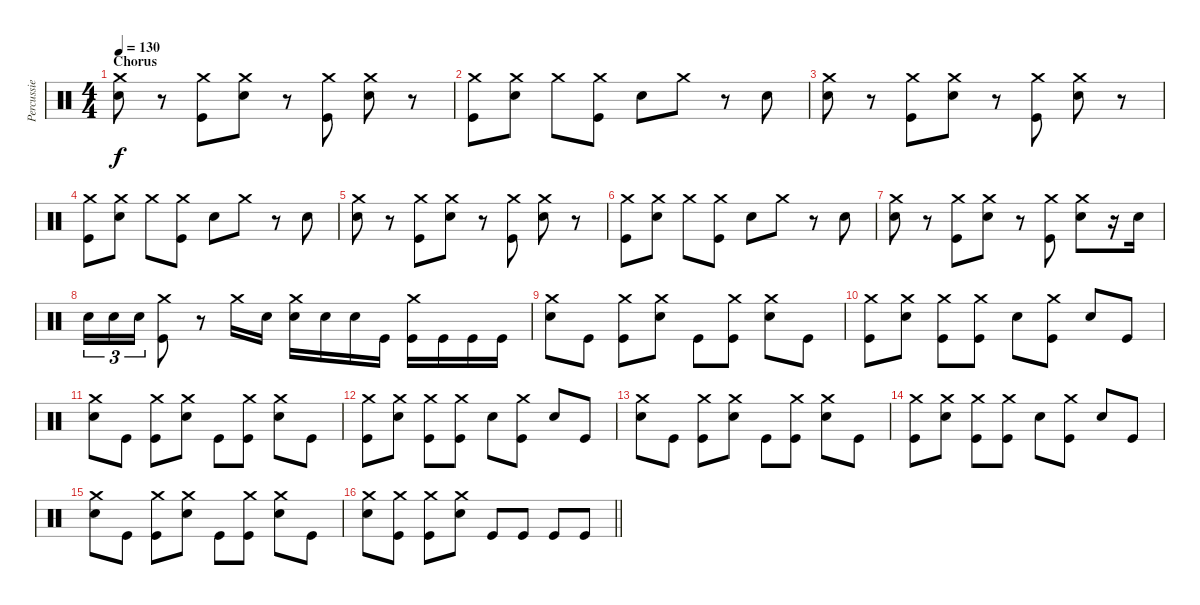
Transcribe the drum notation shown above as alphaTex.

\track ("Percussie" "Percussie") {instrument percussion}
\staff {score}
\articulation defaults
\ts (4 4)
\section ("" "Chorus")
\tempo 130
\clef neutral
\ks c
("Crash medium (hit)" "Snare (hit) 2").8{dy f} r.8 ("Crash medium (hit)" "Kick (hit)").8 ("Crash medium (hit)" "Snare (hit) 2").8 r.8 ("Crash medium (hit)" "Kick (hit)").8 ("Crash medium (hit)" "Snare (hit) 2").8 r.8 |
("Crash medium (hit)" "Kick (hit)").8 ("Crash medium (hit)" "Snare (hit) 2").8 "Crash medium (hit)".8 ("Crash medium (hit)" "Kick (hit)").8 "Snare (hit) 2".8 "Crash medium (hit)".8 r.8 "Snare (hit) 2".8 |
("Crash medium (hit)" "Snare (hit) 2").8 r.8 ("Crash medium (hit)" "Kick (hit)").8 ("Crash medium (hit)" "Snare (hit) 2").8 r.8 ("Crash medium (hit)" "Kick (hit)").8 ("Crash medium (hit)" "Snare (hit) 2").8 r.8 |
("Crash medium (hit)" "Kick (hit)").8 ("Crash medium (hit)" "Snare (hit) 2").8 "Crash medium (hit)".8 ("Crash medium (hit)" "Kick (hit)").8 "Snare (hit) 2".8 "Crash medium (hit)".8 r.8 "Snare (hit) 2".8 |
("Crash medium (hit)" "Snare (hit) 2").8 r.8 ("Crash medium (hit)" "Kick (hit)").8 ("Crash medium (hit)" "Snare (hit) 2").8 r.8 ("Crash medium (hit)" "Kick (hit)").8 ("Crash medium (hit)" "Snare (hit) 2").8 r.8 |
("Crash medium (hit)" "Kick (hit)").8 ("Crash medium (hit)" "Snare (hit) 2").8 "Crash medium (hit)".8 ("Crash medium (hit)" "Kick (hit)").8 "Snare (hit) 2".8 "Crash medium (hit)".8 r.8 "Snare (hit) 2".8 |
("Crash medium (hit)" "Snare (hit) 2").8 r.8 ("Crash medium (hit)" "Kick (hit)").8 ("Crash medium (hit)" "Snare (hit) 2").8 r.8 ("Crash medium (hit)" "Kick (hit)").8 ("Crash medium (hit)" "Snare (hit) 2").8 r.16 "Snare (hit) 2".16 |
"Snare (hit) 2".16{tu (3 2)} "Snare (hit) 2".16{tu (3 2)} "Snare (hit) 2".16{tu (3 2)} ("Crash medium (hit)" "Kick (hit)").8 r.8 "Crash medium (hit)".16 "Snare (hit) 2".16 ("Crash medium (hit)" "Snare (hit) 2").16 "Snare (hit) 2".16 "Snare (hit) 2".16 "Kick (hit)".16 ("Crash medium (hit)" "Kick (hit)").16 "Kick (hit)".16 "Kick (hit)".16 "Kick (hit)".16 |
("Crash medium (hit)" "Snare (hit) 2").8 "Kick (hit)".8 ("Crash medium (hit)" "Kick (hit)").8 ("Crash medium (hit)" "Snare (hit) 2").8 "Kick (hit)".8 ("Crash medium (hit)" "Kick (hit)").8 ("Crash medium (hit)" "Snare (hit) 2").8 "Kick (hit)".8 |
("Crash medium (hit)" "Kick (hit)").8 ("Crash medium (hit)" "Snare (hit) 2").8 ("Crash medium (hit)" "Kick (hit)").8 ("Crash medium (hit)" "Kick (hit)").8 "Snare (hit) 2".8 ("Crash medium (hit)" "Kick (hit)").8 "Snare (hit) 2".8 "Kick (hit)".8 |
("Crash medium (hit)" "Snare (hit) 2").8 "Kick (hit)".8 ("Crash medium (hit)" "Kick (hit)").8 ("Crash medium (hit)" "Snare (hit) 2").8 "Kick (hit)".8 ("Crash medium (hit)" "Kick (hit)").8 ("Crash medium (hit)" "Snare (hit) 2").8 "Kick (hit)".8 |
("Crash medium (hit)" "Kick (hit)").8 ("Crash medium (hit)" "Snare (hit) 2").8 ("Crash medium (hit)" "Kick (hit)").8 ("Crash medium (hit)" "Kick (hit)").8 "Snare (hit) 2".8 ("Crash medium (hit)" "Kick (hit)").8 "Snare (hit) 2".8 "Kick (hit)".8 |
("Crash medium (hit)" "Snare (hit) 2").8 "Kick (hit)".8 ("Crash medium (hit)" "Kick (hit)").8 ("Crash medium (hit)" "Snare (hit) 2").8 "Kick (hit)".8 ("Crash medium (hit)" "Kick (hit)").8 ("Crash medium (hit)" "Snare (hit) 2").8 "Kick (hit)".8 |
("Crash medium (hit)" "Kick (hit)").8 ("Crash medium (hit)" "Snare (hit) 2").8 ("Crash medium (hit)" "Kick (hit)").8 ("Crash medium (hit)" "Kick (hit)").8 "Snare (hit) 2".8 ("Crash medium (hit)" "Kick (hit)").8 "Snare (hit) 2".8 "Kick (hit)".8 |
("Crash medium (hit)" "Snare (hit) 2").8 "Kick (hit)".8 ("Crash medium (hit)" "Kick (hit)").8 ("Crash medium (hit)" "Snare (hit) 2").8 "Kick (hit)".8 ("Crash medium (hit)" "Kick (hit)").8 ("Crash medium (hit)" "Snare (hit) 2").8 "Kick (hit)".8 |
\barLineRight lightlight
("Crash medium (hit)" "Electric Snare (hit)").8 ("Crash medium (hit)" "Kick (hit)").8 ("Crash medium (hit)" "Kick (hit)").8 ("Crash medium (hit)" "Electric Snare (hit)").8 "Kick (hit)".8 "Kick (hit)".8 "Kick (hit)".8 "Kick (hit)".8
